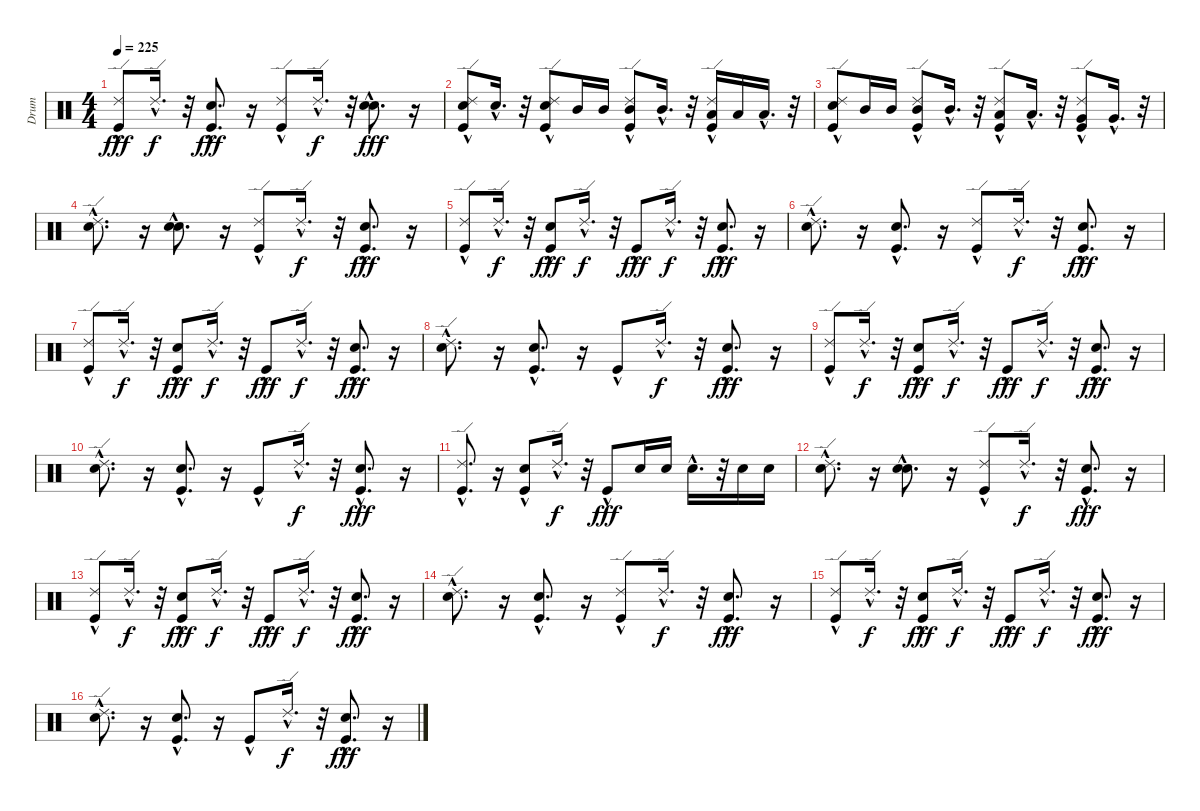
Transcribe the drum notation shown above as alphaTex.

\track ("Drum" "Drum") {instrument percussion}
\staff {score}
\articulation defaults
\ts (4 4)
\tempo 225
\clef neutral
\ks c
("Kick (hit)"{hac} "Ride (edge) 2"{hac}).8{dy fff} "Ride (edge) 2"{hac}.16{d dy f} r.32 ("Kick (hit)"{hac} "Electric Snare (hit)"{hac}).8{d dy fff} r.16 ("Kick (hit)"{hac} "Ride (edge) 2"{hac}).8 "Ride (edge) 2"{hac}.16{d dy f} r.32 ("Snare (hit) 2"{hac} "Electric Snare (hit)"{hac}).8{d dy fff} r.16 |
("Kick (hit)"{hac} "Electric Snare (hit)"{hac} "Ride (edge) 2"{hac}).8 "Electric Snare (hit)"{hac}.16{d} r.32 ("Kick (hit)"{hac} "Electric Snare (hit)"{hac} "Ride (edge) 2"{hac}).8 "Mid Tom (hit)".16 "Mid Tom (hit)".16 ("Kick (hit)"{hac} "Mid Tom (hit)"{hac} "Ride (edge) 2"{hac}).8 "Mid Tom (hit)"{hac}.16{d} r.32 ("Kick (hit)"{hac} "Low Tom (hit)" "Ride (edge) 2"{hac}).16 "Low Tom (hit)".16 "Low Tom (hit)"{hac}.16{d} r.32 |
("Kick (hit)"{hac} "Electric Snare (hit)"{hac} "Ride (edge) 2"{hac}).8 "Mid Tom (hit)".16 "Mid Tom (hit)".16 ("Kick (hit)"{hac} "Mid Tom (hit)"{hac} "Ride (edge) 2"{hac}).8 "Mid Tom (hit)"{hac}.16{d} r.32 ("Kick (hit)"{hac} "Low Tom (hit)"{hac} "Ride (edge) 2"{hac}).8 "Low Tom (hit)"{hac}.16{d} r.32 ("Kick (hit)"{hac} "Very Low Tom (hit)"{hac} "Ride (edge) 2"{hac}).8 "Very Low Tom (hit)"{hac}.16{d} r.32 |
("Snare (hit) 2"{hac} "Ride (edge) 2"{hac}).8{d} r.16 ("Snare (hit) 2"{hac} "Electric Snare (hit)"{hac}).8{d} r.16 ("Kick (hit)"{hac} "Ride (edge) 2"{hac}).8 "Ride (edge) 2"{hac}.16{d dy f} r.32 ("Kick (hit)"{hac} "Electric Snare (hit)"{hac}).8{d dy fff} r.16 |
("Kick (hit)"{hac} "Ride (edge) 2"{hac}).8 "Ride (edge) 2"{hac}.16{d dy f} r.32 ("Kick (hit)"{hac} "Electric Snare (hit)"{hac}).8{dy fff} "Ride (edge) 2"{hac}.16{d dy f} r.32 "Kick (hit)"{hac}.8{dy fff} "Ride (edge) 2"{hac}.16{d dy f} r.32 ("Kick (hit)"{hac} "Electric Snare (hit)"{hac}).8{d dy fff} r.16 |
("Snare (hit) 2"{hac} "Ride (edge) 2"{hac}).8{d} r.16 ("Kick (hit)"{hac} "Electric Snare (hit)"{hac}).8{d} r.16 ("Kick (hit)"{hac} "Ride (edge) 2"{hac}).8 "Ride (edge) 2"{hac}.16{d dy f} r.32 ("Kick (hit)"{hac} "Electric Snare (hit)"{hac}).8{d dy fff} r.16 |
("Kick (hit)"{hac} "Ride (edge) 2"{hac}).8 "Ride (edge) 2"{hac}.16{d dy f} r.32 ("Kick (hit)"{hac} "Electric Snare (hit)"{hac}).8{dy fff} "Ride (edge) 2"{hac}.16{d dy f} r.32 "Kick (hit)"{hac}.8{dy fff} "Ride (edge) 2"{hac}.16{d dy f} r.32 ("Kick (hit)"{hac} "Electric Snare (hit)"{hac}).8{d dy fff} r.16 |
("Snare (hit) 2"{hac} "Ride (edge) 2"{hac}).8{d} r.16 ("Kick (hit)"{hac} "Electric Snare (hit)"{hac}).8{d} r.16 "Kick (hit)"{hac}.8 "Ride (edge) 2"{hac}.16{d dy f} r.32 ("Kick (hit)"{hac} "Electric Snare (hit)"{hac}).8{d dy fff} r.16 |
("Kick (hit)"{hac} "Ride (edge) 2"{hac}).8 "Ride (edge) 2"{hac}.16{d dy f} r.32 ("Kick (hit)"{hac} "Electric Snare (hit)"{hac}).8{dy fff} "Ride (edge) 2"{hac}.16{d dy f} r.32 "Kick (hit)"{hac}.8{dy fff} "Ride (edge) 2"{hac}.16{d dy f} r.32 ("Kick (hit)"{hac} "Electric Snare (hit)"{hac}).8{d dy fff} r.16 |
("Snare (hit) 2"{hac} "Ride (edge) 2"{hac}).8{d} r.16 ("Kick (hit)"{hac} "Electric Snare (hit)"{hac}).8{d} r.16 "Kick (hit)"{hac}.8 "Ride (edge) 2"{hac}.16{d dy f} r.32 ("Kick (hit)"{hac} "Electric Snare (hit)"{hac}).8{d dy fff} r.16 |
("Kick (hit)"{hac} "Ride (edge) 2"{hac}).8{d} r.16 ("Kick (hit)"{hac} "Electric Snare (hit)"{hac}).8 "Ride (edge) 2"{hac}.16{d dy f} r.32 "Kick (hit)"{hac}.8{dy fff} "Electric Snare (hit)".16 "Electric Snare (hit)".16 "Electric Snare (hit)"{hac}.16{d} r.32 "Electric Snare (hit)".16 "Electric Snare (hit)".16 |
("Snare (hit) 2"{hac} "Ride (edge) 2"{hac}).8{d} r.16 ("Snare (hit) 2"{hac} "Electric Snare (hit)"{hac}).8{d} r.16 ("Kick (hit)"{hac} "Ride (edge) 2"{hac}).8 "Ride (edge) 2"{hac}.16{d dy f} r.32 ("Kick (hit)"{hac} "Electric Snare (hit)"{hac}).8{d dy fff} r.16 |
("Kick (hit)"{hac} "Ride (edge) 2"{hac}).8 "Ride (edge) 2"{hac}.16{d dy f} r.32 ("Kick (hit)"{hac} "Electric Snare (hit)"{hac}).8{dy fff} "Ride (edge) 2"{hac}.16{d dy f} r.32 "Kick (hit)"{hac}.8{dy fff} "Ride (edge) 2"{hac}.16{d dy f} r.32 ("Kick (hit)"{hac} "Electric Snare (hit)"{hac}).8{d dy fff} r.16 |
("Snare (hit) 2"{hac} "Ride (edge) 2"{hac}).8{d} r.16 ("Kick (hit)"{hac} "Electric Snare (hit)"{hac}).8{d} r.16 ("Kick (hit)"{hac} "Ride (edge) 2"{hac}).8 "Ride (edge) 2"{hac}.16{d dy f} r.32 ("Kick (hit)"{hac} "Electric Snare (hit)"{hac}).8{d dy fff} r.16 |
("Kick (hit)"{hac} "Ride (edge) 2"{hac}).8 "Ride (edge) 2"{hac}.16{d dy f} r.32 ("Kick (hit)"{hac} "Electric Snare (hit)"{hac}).8{dy fff} "Ride (edge) 2"{hac}.16{d dy f} r.32 "Kick (hit)"{hac}.8{dy fff} "Ride (edge) 2"{hac}.16{d dy f} r.32 ("Kick (hit)"{hac} "Electric Snare (hit)"{hac}).8{d dy fff} r.16 |
("Snare (hit) 2"{hac} "Ride (edge) 2"{hac}).8{d} r.16 ("Kick (hit)"{hac} "Electric Snare (hit)"{hac}).8{d} r.16 "Kick (hit)"{hac}.8 "Ride (edge) 2"{hac}.16{d dy f} r.32 ("Kick (hit)"{hac} "Electric Snare (hit)"{hac}).8{d dy fff} r.16
